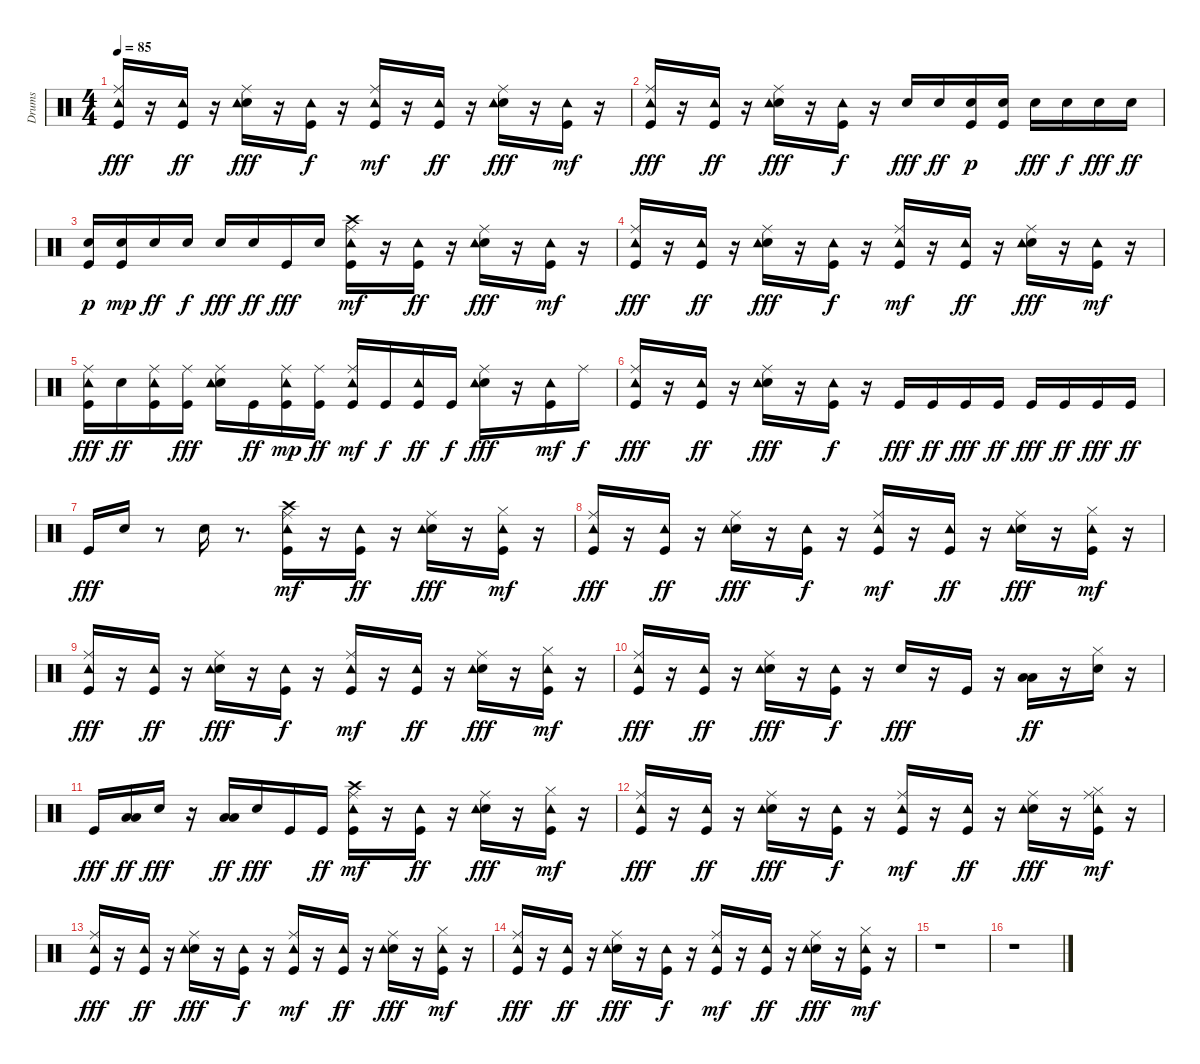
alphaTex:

\track ("Drums    " "Drums    ") {instrument percussion}
\staff {score}
\articulation defaults
\ts (4 4)
\tempo 85
\clef neutral
\ks c
("Kick (hit)" "Ride (middle)" "Tambourine (hit)").16{dy fff} r.16 ("Kick (hit)" "Tambourine (hit)").16{dy ff} r.16 ("Snare (hit) 2" "Ride (middle)" "Tambourine (hit)").16{dy fff} r.16 ("Kick (hit)" "Tambourine (hit)").16{dy f} r.16 ("Kick (hit)" "Ride (middle)" "Tambourine (hit)").16{dy mf} r.16 ("Kick (hit)" "Tambourine (hit)").16{dy ff} r.16 ("Snare (hit) 2" "Ride (middle)" "Tambourine (hit)").16{dy fff} r.16 ("Kick (hit)" "Tambourine (hit)").16{dy mf} r.16 |
("Kick (hit)" "Ride (middle)" "Tambourine (hit)").16{dy fff} r.16 ("Kick (hit)" "Tambourine (hit)").16{dy ff} r.16 ("Snare (hit) 2" "Ride (middle)" "Tambourine (hit)").16{dy fff} r.16 ("Kick (hit)" "Tambourine (hit)").16{dy f} r.16 "Snare (hit) 2".16{dy fff} "Snare (hit) 2".16{dy ff} ("Kick (hit)" "Snare (hit) 2").16{dy p} ("Kick (hit)" "Snare (hit) 2").16 "Snare (hit) 2".16{dy fff} "Snare (hit) 2".16{dy f} "Snare (hit) 2".16{dy fff} "Snare (hit) 2".16{dy ff} |
("Kick (hit)" "Snare (hit) 2").16{dy p} ("Kick (hit)" "Snare (hit) 2").16{dy mp} "Snare (hit) 2".16{dy ff} "Snare (hit) 2".16{dy f} "Snare (hit) 2".16{dy fff} "Snare (hit) 2".16{dy ff} "Kick (hit)".16{dy fff} "Snare (hit) 2".16 ("Kick (hit)" "Ride (middle)" "Crash high (hit)" "Tambourine (hit)").16{dy mf} r.16 ("Kick (hit)" "Tambourine (hit)").16{dy ff} r.16 ("Snare (hit) 2" "Ride (middle)" "Tambourine (hit)").16{dy fff} r.16 ("Kick (hit)" "Tambourine (hit)").16{dy mf} r.16 |
("Kick (hit)" "Ride (middle)" "Tambourine (hit)").16{dy fff} r.16 ("Kick (hit)" "Tambourine (hit)").16{dy ff} r.16 ("Snare (hit) 2" "Ride (middle)" "Tambourine (hit)").16{dy fff} r.16 ("Kick (hit)" "Tambourine (hit)").16{dy f} r.16 ("Kick (hit)" "Ride (middle)" "Tambourine (hit)").16{dy mf} r.16 ("Kick (hit)" "Tambourine (hit)").16{dy ff} r.16 ("Snare (hit) 2" "Ride (middle)" "Tambourine (hit)").16{dy fff} r.16 ("Kick (hit)" "Tambourine (hit)").16{dy mf} r.16 |
("Kick (hit)" "Ride (middle)" "Tambourine (hit)").16{dy fff} "Snare (hit) 2".16{dy ff} ("Kick (hit)" "Ride (middle)" "Tambourine (hit)").16 ("Kick (hit)" "Ride (middle)").16{dy fff} ("Snare (hit) 2" "Ride (middle)" "Tambourine (hit)").16 "Kick (hit)".16{dy ff} ("Kick (hit)" "Ride (middle)" "Tambourine (hit)").16{dy mp} ("Kick (hit)" "Ride (middle)").16{dy ff} ("Kick (hit)" "Ride (middle)" "Tambourine (hit)").16{dy mf} "Kick (hit)".16{dy f} ("Kick (hit)" "Tambourine (hit)").16{dy ff} "Kick (hit)".16{dy f} ("Snare (hit) 2" "Ride (middle)" "Tambourine (hit)").16{dy fff} r.16 ("Kick (hit)" "Tambourine (hit)").16{dy mf} "Ride (middle)".16{dy f} |
("Kick (hit)" "Ride (middle)" "Tambourine (hit)").16{dy fff} r.16 ("Kick (hit)" "Tambourine (hit)").16{dy ff} r.16 ("Snare (hit) 2" "Ride (middle)" "Tambourine (hit)").16{dy fff} r.16 ("Kick (hit)" "Tambourine (hit)").16{dy f} r.16 "Kick (hit)".16{dy fff} "Kick (hit)".16{dy ff} "Kick (hit)".16{dy fff} "Kick (hit)".16{dy ff} "Kick (hit)".16{dy fff} "Kick (hit)".16{dy ff} "Kick (hit)".16{dy fff} "Kick (hit)".16{dy ff} |
"Kick (hit)".16{dy fff} "Snare (hit) 2".16 r.8 "Snare (hit) 2".16 r.8{d} ("Kick (hit)" "Ride (middle)" "Crash high (hit)" "Tambourine (hit)").16{dy mf} r.16 ("Kick (hit)" "Tambourine (hit)").16{dy ff} r.16 ("Snare (hit) 2" "Ride (middle)" "Tambourine (hit)").16{dy fff} r.16 ("Kick (hit)" "Hi-Hat (closed)" "Tambourine (hit)").16{dy mf} r.16 |
("Kick (hit)" "Ride (middle)" "Tambourine (hit)").16{dy fff} r.16 ("Kick (hit)" "Tambourine (hit)").16{dy ff} r.16 ("Snare (hit) 2" "Ride (middle)" "Tambourine (hit)").16{dy fff} r.16 ("Kick (hit)" "Tambourine (hit)").16{dy f} r.16 ("Kick (hit)" "Ride (middle)" "Tambourine (hit)").16{dy mf} r.16 ("Kick (hit)" "Tambourine (hit)").16{dy ff} r.16 ("Snare (hit) 2" "Ride (middle)" "Tambourine (hit)").16{dy fff} r.16 ("Kick (hit)" "Hi-Hat (closed)" "Tambourine (hit)").16{dy mf} r.16 |
("Kick (hit)" "Ride (middle)" "Tambourine (hit)").16{dy fff} r.16 ("Kick (hit)" "Tambourine (hit)").16{dy ff} r.16 ("Snare (hit) 2" "Ride (middle)" "Tambourine (hit)").16{dy fff} r.16 ("Kick (hit)" "Tambourine (hit)").16{dy f} r.16 ("Kick (hit)" "Ride (middle)" "Tambourine (hit)").16{dy mf} r.16 ("Kick (hit)" "Tambourine (hit)").16{dy ff} r.16 ("Snare (hit) 2" "Ride (middle)" "Tambourine (hit)").16{dy fff} r.16 ("Kick (hit)" "Hi-Hat (closed)" "Tambourine (hit)").16{dy mf} r.16 |
("Kick (hit)" "Ride (middle)" "Tambourine (hit)").16{dy fff} r.16 ("Kick (hit)" "Tambourine (hit)").16{dy ff} r.16 ("Snare (hit) 2" "Ride (middle)" "Tambourine (hit)").16{dy fff} r.16 ("Kick (hit)" "Tambourine (hit)").16{dy f} r.16 "Snare (hit) 2".16{dy fff} r.16 "Kick (hit)".16 r.16 ("Low Floor Tom (hit)" "Low Tom (hit)").16{dy ff} r.16 ("Snare (hit) 2" "Hi-Hat (closed)").16 r.16 |
"Kick (hit)".16{dy fff} ("Low Floor Tom (hit)" "Low Tom (hit)").16{dy ff} "Snare (hit) 2".16{dy fff} r.16 ("Low Floor Tom (hit)" "Low Tom (hit)").16{dy ff} "Snare (hit) 2".16{dy fff} "Kick (hit)".16 "Kick (hit)".16{dy ff} ("Kick (hit)" "Ride (middle)" "Crash high (hit)" "Tambourine (hit)").16{dy mf} r.16 ("Kick (hit)" "Tambourine (hit)").16{dy ff} r.16 ("Snare (hit) 2" "Ride (middle)" "Tambourine (hit)").16{dy fff} r.16 ("Kick (hit)" "Hi-Hat (closed)" "Tambourine (hit)").16{dy mf} r.16 |
("Kick (hit)" "Ride (middle)" "Tambourine (hit)").16{dy fff} r.16 ("Kick (hit)" "Tambourine (hit)").16{dy ff} r.16 ("Snare (hit) 2" "Ride (middle)" "Tambourine (hit)").16{dy fff} r.16 ("Kick (hit)" "Tambourine (hit)").16{dy f} r.16 ("Kick (hit)" "Ride (middle)" "Tambourine (hit)").16{dy mf} r.16 ("Kick (hit)" "Tambourine (hit)").16{dy ff} r.16 ("Snare (hit) 2" "Ride (middle)" "Tambourine (hit)").16{dy fff} r.16 ("Kick (hit)" "Hi-Hat (closed)" "Ride (middle)" "Tambourine (hit)").16{dy mf} r.16 |
("Kick (hit)" "Ride (middle)" "Tambourine (hit)").16{dy fff} r.16 ("Kick (hit)" "Tambourine (hit)").16{dy ff} r.16 ("Snare (hit) 2" "Ride (middle)" "Tambourine (hit)").16{dy fff} r.16 ("Kick (hit)" "Tambourine (hit)").16{dy f} r.16 ("Kick (hit)" "Ride (middle)" "Tambourine (hit)").16{dy mf} r.16 ("Kick (hit)" "Tambourine (hit)").16{dy ff} r.16 ("Snare (hit) 2" "Ride (middle)" "Tambourine (hit)").16{dy fff} r.16 ("Kick (hit)" "Hi-Hat (closed)" "Tambourine (hit)").16{dy mf} r.16 |
("Kick (hit)" "Ride (middle)" "Tambourine (hit)").16{dy fff} r.16 ("Kick (hit)" "Tambourine (hit)").16{dy ff} r.16 ("Snare (hit) 2" "Ride (middle)" "Tambourine (hit)").16{dy fff} r.16 ("Kick (hit)" "Tambourine (hit)").16{dy f} r.16 ("Kick (hit)" "Ride (middle)" "Tambourine (hit)").16{dy mf} r.16 ("Kick (hit)" "Tambourine (hit)").16{dy ff} r.16 ("Snare (hit) 2" "Ride (middle)" "Tambourine (hit)").16{dy fff} r.16 ("Kick (hit)" "Hi-Hat (closed)" "Tambourine (hit)").16{dy mf} r.16 |
r.1 |
r.1
